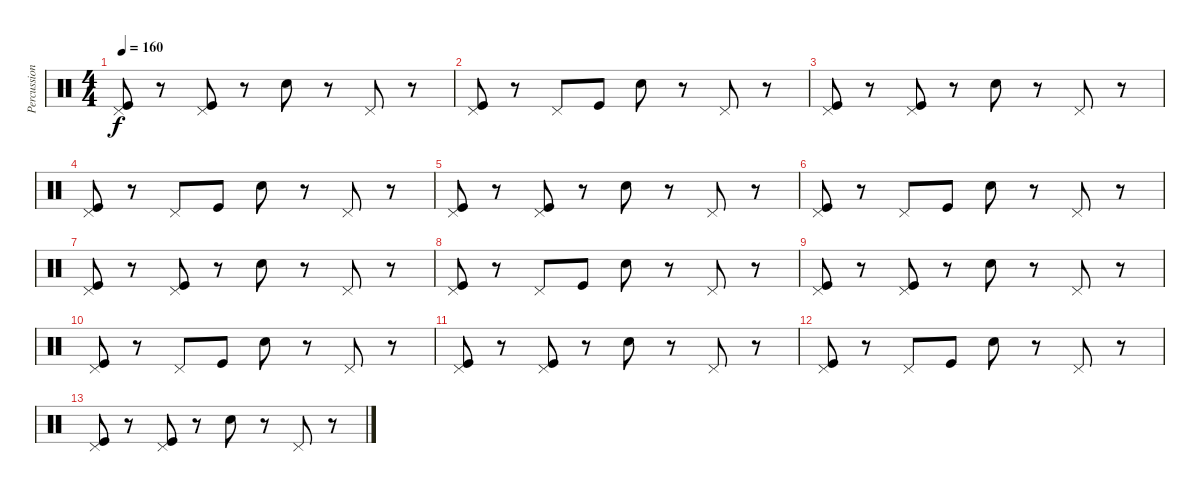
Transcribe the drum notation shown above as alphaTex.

\track ("Percussion" "Percussion") {instrument percussion}
\staff {score}
\articulation defaults
\ts (4 4)
\tempo 160
\clef neutral
\ks c
("Pedal Hi-Hat (hit)" "Kick (hit)").8{dy f} r.8 ("Pedal Hi-Hat (hit)" "Kick (hit)").8 r.8 "Electric Snare (hit)".8 r.8 "Pedal Hi-Hat (hit)".8 r.8 |
("Pedal Hi-Hat (hit)" "Kick (hit)").8 r.8 "Pedal Hi-Hat (hit)".8 "Kick (hit)".8 "Electric Snare (hit)".8 r.8 "Pedal Hi-Hat (hit)".8 r.8 |
("Pedal Hi-Hat (hit)" "Kick (hit)").8 r.8 ("Pedal Hi-Hat (hit)" "Kick (hit)").8 r.8 "Electric Snare (hit)".8 r.8 "Pedal Hi-Hat (hit)".8 r.8 |
("Pedal Hi-Hat (hit)" "Kick (hit)").8 r.8 "Pedal Hi-Hat (hit)".8 "Kick (hit)".8 "Electric Snare (hit)".8 r.8 "Pedal Hi-Hat (hit)".8 r.8 |
("Pedal Hi-Hat (hit)" "Kick (hit)").8 r.8 ("Pedal Hi-Hat (hit)" "Kick (hit)").8 r.8 "Electric Snare (hit)".8 r.8 "Pedal Hi-Hat (hit)".8 r.8 |
("Pedal Hi-Hat (hit)" "Kick (hit)").8 r.8 "Pedal Hi-Hat (hit)".8 "Kick (hit)".8 "Electric Snare (hit)".8 r.8 "Pedal Hi-Hat (hit)".8 r.8 |
("Pedal Hi-Hat (hit)" "Kick (hit)").8 r.8 ("Pedal Hi-Hat (hit)" "Kick (hit)").8 r.8 "Electric Snare (hit)".8 r.8 "Pedal Hi-Hat (hit)".8 r.8 |
("Pedal Hi-Hat (hit)" "Kick (hit)").8 r.8 "Pedal Hi-Hat (hit)".8 "Kick (hit)".8 "Electric Snare (hit)".8 r.8 "Pedal Hi-Hat (hit)".8 r.8 |
("Pedal Hi-Hat (hit)" "Kick (hit)").8 r.8 ("Pedal Hi-Hat (hit)" "Kick (hit)").8 r.8 "Electric Snare (hit)".8 r.8 "Pedal Hi-Hat (hit)".8 r.8 |
("Pedal Hi-Hat (hit)" "Kick (hit)").8 r.8 "Pedal Hi-Hat (hit)".8 "Kick (hit)".8 "Electric Snare (hit)".8 r.8 "Pedal Hi-Hat (hit)".8 r.8 |
("Pedal Hi-Hat (hit)" "Kick (hit)").8 r.8 ("Pedal Hi-Hat (hit)" "Kick (hit)").8 r.8 "Electric Snare (hit)".8 r.8 "Pedal Hi-Hat (hit)".8 r.8 |
("Pedal Hi-Hat (hit)" "Kick (hit)").8 r.8 "Pedal Hi-Hat (hit)".8 "Kick (hit)".8 "Electric Snare (hit)".8 r.8 "Pedal Hi-Hat (hit)".8 r.8 |
("Pedal Hi-Hat (hit)" "Kick (hit)").8 r.8 ("Pedal Hi-Hat (hit)" "Kick (hit)").8 r.8 "Electric Snare (hit)".8 r.8 "Pedal Hi-Hat (hit)".8 r.8
